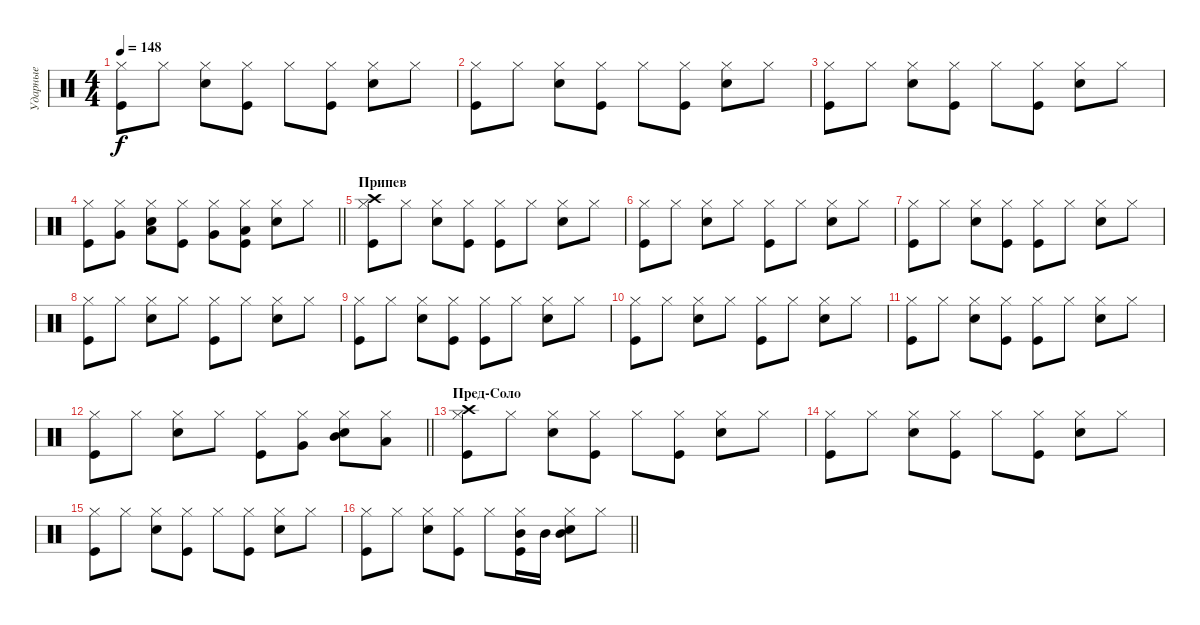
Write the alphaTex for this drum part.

\track ("Ударные" "Ударные") {instrument percussion}
\staff {score}
\articulation defaults
\ts (4 4)
\tempo 148
\clef neutral
\ks c
("Kick (hit)" "Hi-Hat (closed)").8{dy f} "Hi-Hat (closed)".8 ("Snare (hit) 2" "Hi-Hat (closed)").8 ("Kick (hit)" "Hi-Hat (closed)").8 "Hi-Hat (closed)".8 ("Kick (hit)" "Hi-Hat (closed)").8 ("Snare (hit) 2" "Hi-Hat (closed)").8 "Hi-Hat (closed)".8 |
("Kick (hit)" "Hi-Hat (closed)").8 "Hi-Hat (closed)".8 ("Snare (hit) 2" "Hi-Hat (closed)").8 ("Kick (hit)" "Hi-Hat (closed)").8 "Hi-Hat (closed)".8 ("Kick (hit)" "Hi-Hat (closed)").8 ("Snare (hit) 2" "Hi-Hat (closed)").8 "Hi-Hat (closed)".8 |
("Kick (hit)" "Hi-Hat (closed)").8 "Hi-Hat (closed)".8 ("Snare (hit) 2" "Hi-Hat (closed)").8 ("Kick (hit)" "Hi-Hat (closed)").8 "Hi-Hat (closed)".8 ("Kick (hit)" "Hi-Hat (closed)").8 ("Snare (hit) 2" "Hi-Hat (closed)").8 "Hi-Hat (closed)".8 |
\barLineRight lightlight
("Kick (hit)" "Hi-Hat (closed)").8 ("Hi-Hat (closed)" "Very Low Tom (hit)").8 ("Snare (hit) 2" "Hi-Hat (closed)" "Low Tom (hit)").8 ("Kick (hit)" "Hi-Hat (closed)").8 ("Hi-Hat (closed)" "Very Low Tom (hit)").8 ("Kick (hit)" "Hi-Hat (closed)" "Low Floor Tom (hit)").8 ("Snare (hit) 2" "Hi-Hat (closed)").8 "Hi-Hat (closed)".8 |
\section ("" "Припев")
("Kick (hit)" "Hi-Hat (closed)" "Crash high (hit)").8 "Hi-Hat (closed)".8 ("Snare (hit) 2" "Hi-Hat (closed)").8 ("Kick (hit)" "Hi-Hat (closed)").8 ("Kick (hit)" "Hi-Hat (closed)").8 "Hi-Hat (closed)".8 ("Snare (hit) 2" "Hi-Hat (closed)").8 "Hi-Hat (closed)".8 |
("Kick (hit)" "Hi-Hat (closed)").8 "Hi-Hat (closed)".8 ("Snare (hit) 2" "Hi-Hat (closed)").8 "Hi-Hat (closed)".8 ("Kick (hit)" "Hi-Hat (closed)").8 "Hi-Hat (closed)".8 ("Snare (hit) 2" "Hi-Hat (closed)").8 "Hi-Hat (closed)".8 |
("Kick (hit)" "Hi-Hat (closed)").8 "Hi-Hat (closed)".8 ("Snare (hit) 2" "Hi-Hat (closed)").8 ("Kick (hit)" "Hi-Hat (closed)").8 ("Kick (hit)" "Hi-Hat (closed)").8 "Hi-Hat (closed)".8 ("Snare (hit) 2" "Hi-Hat (closed)").8 "Hi-Hat (closed)".8 |
("Kick (hit)" "Hi-Hat (closed)").8 "Hi-Hat (closed)".8 ("Snare (hit) 2" "Hi-Hat (closed)").8 "Hi-Hat (closed)".8 ("Kick (hit)" "Hi-Hat (closed)").8 "Hi-Hat (closed)".8 ("Snare (hit) 2" "Hi-Hat (closed)").8 "Hi-Hat (closed)".8 |
("Kick (hit)" "Hi-Hat (closed)").8 "Hi-Hat (closed)".8 ("Snare (hit) 2" "Hi-Hat (closed)").8 ("Kick (hit)" "Hi-Hat (closed)").8 ("Kick (hit)" "Hi-Hat (closed)").8 "Hi-Hat (closed)".8 ("Snare (hit) 2" "Hi-Hat (closed)").8 "Hi-Hat (closed)".8 |
("Kick (hit)" "Hi-Hat (closed)").8 "Hi-Hat (closed)".8 ("Snare (hit) 2" "Hi-Hat (closed)").8 "Hi-Hat (closed)".8 ("Kick (hit)" "Hi-Hat (closed)").8 "Hi-Hat (closed)".8 ("Snare (hit) 2" "Hi-Hat (closed)").8 "Hi-Hat (closed)".8 |
("Kick (hit)" "Hi-Hat (closed)").8 "Hi-Hat (closed)".8 ("Snare (hit) 2" "Hi-Hat (closed)").8 ("Kick (hit)" "Hi-Hat (closed)").8 ("Kick (hit)" "Hi-Hat (closed)").8 "Hi-Hat (closed)".8 ("Snare (hit) 2" "Hi-Hat (closed)").8 "Hi-Hat (closed)".8 |
\barLineRight lightlight
("Kick (hit)" "Hi-Hat (closed)").8 "Hi-Hat (closed)".8 ("Snare (hit) 2" "Hi-Hat (closed)").8 "Hi-Hat (closed)".8 ("Kick (hit)" "Hi-Hat (closed)").8 ("Hi-Hat (closed)" "Very Low Tom (hit)").8 ("Snare (hit) 2" "Hi-Hat (closed)" "Mid Tom (hit)").8 ("Hi-Hat (closed)" "Low Floor Tom (hit)").8 |
\section ("" "Пред-Соло")
("Kick (hit)" "Hi-Hat (closed)" "Crash high (hit)").8 "Hi-Hat (closed)".8 ("Snare (hit) 2" "Hi-Hat (closed)").8 ("Kick (hit)" "Hi-Hat (closed)").8 "Hi-Hat (closed)".8 ("Kick (hit)" "Hi-Hat (closed)").8 ("Snare (hit) 2" "Hi-Hat (closed)").8 "Hi-Hat (closed)".8 |
("Kick (hit)" "Hi-Hat (closed)").8 "Hi-Hat (closed)".8 ("Snare (hit) 2" "Hi-Hat (closed)").8 ("Kick (hit)" "Hi-Hat (closed)").8 "Hi-Hat (closed)".8 ("Kick (hit)" "Hi-Hat (closed)").8 ("Snare (hit) 2" "Hi-Hat (closed)").8 "Hi-Hat (closed)".8 |
("Kick (hit)" "Hi-Hat (closed)").8 "Hi-Hat (closed)".8 ("Snare (hit) 2" "Hi-Hat (closed)").8 ("Kick (hit)" "Hi-Hat (closed)").8 "Hi-Hat (closed)".8 ("Kick (hit)" "Hi-Hat (closed)").8 ("Snare (hit) 2" "Hi-Hat (closed)").8 "Hi-Hat (closed)".8 |
\barLineRight lightlight
("Kick (hit)" "Hi-Hat (closed)").8 "Hi-Hat (closed)".8 ("Snare (hit) 2" "Hi-Hat (closed)").8 ("Kick (hit)" "Hi-Hat (closed)").8 "Hi-Hat (closed)".8 ("Kick (hit)" "Hi-Hat (closed)" "Mid Tom (hit)").16 "Mid Tom (hit)".16 ("Snare (hit) 2" "Hi-Hat (closed)" "Mid Tom (hit)").8 "Hi-Hat (closed)".8
